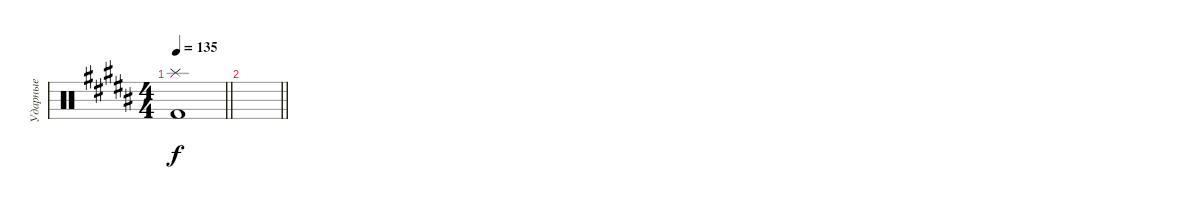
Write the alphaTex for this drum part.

\track ("Ударные" "Ударные") {instrument percussion}
\staff {score}
\articulation defaults
\ts (4 4)
\section ("" "")
\tempo 135
\clef neutral
\barLineRight lightlight
\ks g#minor
("Kick (hit) 2" "Splash (hit)").1{dy f} |
\barLineRight lightlight
